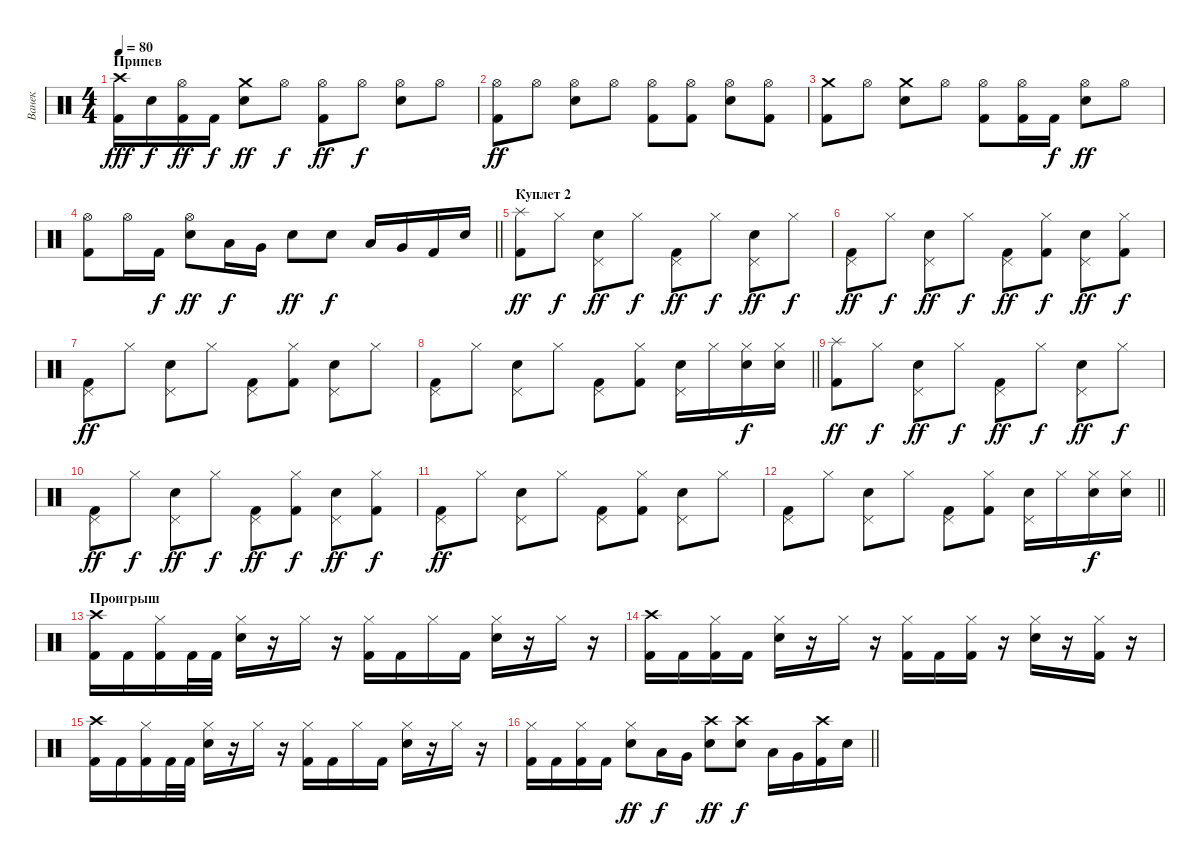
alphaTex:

\track ("Ванек" "Ванек") {instrument percussion}
\staff {score}
\articulation defaults
\ts (4 4)
\section ("" "Припев")
\tempo 80
\clef neutral
\ks c
("Crash high (hit)" "Kick (hit) 2").16{dy fff} "Electric Snare (hit)".16{dy f} ("Hi-Hat (open)" "Kick (hit) 2").16{dy ff} "Kick (hit) 2".16{dy f} ("Crash medium (hit)" "Electric Snare (hit)").8{dy ff} "Hi-Hat (open)".8{dy f} ("Hi-Hat (open)" "Kick (hit) 2").8{dy ff} "Hi-Hat (open)".8{dy f} ("Hi-Hat (open)" "Electric Snare (hit)").8 "Hi-Hat (open)".8 |
("Hi-Hat (open)" "Kick (hit) 2").8{dy ff} "Hi-Hat (open)".8 ("Hi-Hat (open)" "Electric Snare (hit)").8 "Hi-Hat (open)".8 ("Hi-Hat (open)" "Kick (hit) 2").8 ("Hi-Hat (open)" "Kick (hit) 2").8 ("Hi-Hat (open)" "Electric Snare (hit)").8 ("Hi-Hat (open)" "Kick (hit) 2").8 |
("Crash medium (hit)" "Kick (hit) 2").8 "Hi-Hat (open)".8 ("Crash medium (hit)" "Electric Snare (hit)").8 "Hi-Hat (open)".8 ("Hi-Hat (open)" "Kick (hit) 2").8 ("Hi-Hat (open)" "Kick (hit) 2").16 "Kick (hit) 2".16{dy f} ("Hi-Hat (open)" "Electric Snare (hit)").8{dy ff} "Hi-Hat (open)".8 |
\barLineRight lightlight
("Hi-Hat (open)" "Kick (hit) 2").8 "Hi-Hat (open)".16 "Kick (hit) 2".16{dy f} ("Hi-Hat (open)" "Electric Snare (hit)").8{dy ff} "Low Floor Tom (hit)".16{dy f} "Very Low Tom (hit)".16 "Electric Snare (hit)".8{dy ff} "Electric Snare (hit)".8{dy f} "Low Floor Tom (hit)".16 "Very Low Tom (hit)".16 "Kick (hit) 2".16 "Electric Snare (hit)".16 |
\section ("" "Куплет 2")
("Splash (hit)" "Kick (hit) 2").8{dy ff} "Hi-Hat (closed)".8{dy f} ("Pedal Hi-Hat (hit)" "Electric Snare (hit)").8{dy ff} "Hi-Hat (closed)".8{dy f} ("Pedal Hi-Hat (hit)" "Kick (hit) 2").8{dy ff} "Hi-Hat (closed)".8{dy f} ("Pedal Hi-Hat (hit)" "Electric Snare (hit)").8{dy ff} "Hi-Hat (closed)".8{dy f} |
("Pedal Hi-Hat (hit)" "Kick (hit) 2").8{dy ff} "Hi-Hat (closed)".8{dy f} ("Pedal Hi-Hat (hit)" "Electric Snare (hit)").8{dy ff} "Hi-Hat (closed)".8{dy f} ("Pedal Hi-Hat (hit)" "Kick (hit) 2").8{dy ff} ("Hi-Hat (closed)" "Kick (hit) 2").8{dy f} ("Pedal Hi-Hat (hit)" "Electric Snare (hit)").8{dy ff} ("Hi-Hat (closed)" "Kick (hit) 2").8{dy f} |
("Pedal Hi-Hat (hit)" "Kick (hit) 2").8{dy ff} "Hi-Hat (closed)".8 ("Pedal Hi-Hat (hit)" "Electric Snare (hit)").8 "Hi-Hat (closed)".8 ("Pedal Hi-Hat (hit)" "Kick (hit) 2").8 ("Hi-Hat (closed)" "Kick (hit) 2").8 ("Pedal Hi-Hat (hit)" "Electric Snare (hit)").8 "Hi-Hat (closed)".8 |
\barLineRight lightlight
("Pedal Hi-Hat (hit)" "Kick (hit) 2").8 "Hi-Hat (closed)".8 ("Pedal Hi-Hat (hit)" "Electric Snare (hit)").8 "Hi-Hat (closed)".8 ("Pedal Hi-Hat (hit)" "Kick (hit) 2").8 ("Hi-Hat (closed)" "Kick (hit) 2").8 ("Pedal Hi-Hat (hit)" "Electric Snare (hit)").16 "Hi-Hat (closed)".16 ("Hi-Hat (closed)" "Electric Snare (hit)").16{dy f} ("Hi-Hat (closed)" "Electric Snare (hit)").16 |
("Splash (hit)" "Kick (hit) 2").8{dy ff} "Hi-Hat (closed)".8{dy f} ("Pedal Hi-Hat (hit)" "Electric Snare (hit)").8{dy ff} "Hi-Hat (closed)".8{dy f} ("Pedal Hi-Hat (hit)" "Kick (hit) 2").8{dy ff} "Hi-Hat (closed)".8{dy f} ("Pedal Hi-Hat (hit)" "Electric Snare (hit)").8{dy ff} "Hi-Hat (closed)".8{dy f} |
("Pedal Hi-Hat (hit)" "Kick (hit) 2").8{dy ff} "Hi-Hat (closed)".8{dy f} ("Pedal Hi-Hat (hit)" "Electric Snare (hit)").8{dy ff} "Hi-Hat (closed)".8{dy f} ("Pedal Hi-Hat (hit)" "Kick (hit) 2").8{dy ff} ("Hi-Hat (closed)" "Kick (hit) 2").8{dy f} ("Pedal Hi-Hat (hit)" "Electric Snare (hit)").8{dy ff} ("Hi-Hat (closed)" "Kick (hit) 2").8{dy f} |
("Pedal Hi-Hat (hit)" "Kick (hit) 2").8{dy ff} "Hi-Hat (closed)".8 ("Pedal Hi-Hat (hit)" "Electric Snare (hit)").8 "Hi-Hat (closed)".8 ("Pedal Hi-Hat (hit)" "Kick (hit) 2").8 ("Hi-Hat (closed)" "Kick (hit) 2").8 ("Pedal Hi-Hat (hit)" "Electric Snare (hit)").8 "Hi-Hat (closed)".8 |
\barLineRight lightlight
("Pedal Hi-Hat (hit)" "Kick (hit) 2").8 "Hi-Hat (closed)".8 ("Pedal Hi-Hat (hit)" "Electric Snare (hit)").8 "Hi-Hat (closed)".8 ("Pedal Hi-Hat (hit)" "Kick (hit) 2").8 ("Hi-Hat (closed)" "Kick (hit) 2").8 ("Pedal Hi-Hat (hit)" "Electric Snare (hit)").16 "Hi-Hat (closed)".16 ("Hi-Hat (closed)" "Electric Snare (hit)").16{dy f} ("Hi-Hat (closed)" "Electric Snare (hit)").16 |
\section ("" "Проигрыш")
("Crash high (hit)" "Kick (hit) 2").16 "Kick (hit) 2".16 ("Hi-Hat (closed)" "Kick (hit) 2").16 "Kick (hit) 2".32 "Kick (hit) 2".32 ("Hi-Hat (closed)" "Electric Snare (hit)").16 r.16 "Hi-Hat (closed)".16 r.16 ("Hi-Hat (closed)" "Kick (hit) 2").16 "Kick (hit) 2".16 "Hi-Hat (closed)".16 "Kick (hit) 2".16 ("Hi-Hat (closed)" "Electric Snare (hit)").16 r.16 "Hi-Hat (closed)".16 r.16 |
("Crash high (hit)" "Kick (hit) 2").16 "Kick (hit) 2".16 ("Hi-Hat (closed)" "Kick (hit) 2").16 "Kick (hit) 2".16 ("Hi-Hat (closed)" "Electric Snare (hit)").16 r.16 "Hi-Hat (closed)".16 r.16 ("Hi-Hat (closed)" "Kick (hit) 2").16 "Kick (hit) 2".16 ("Hi-Hat (closed)" "Kick (hit) 2").16 r.16 ("Hi-Hat (closed)" "Electric Snare (hit)").16 r.16 ("Hi-Hat (closed)" "Kick (hit) 2").16 r.16 |
("Crash high (hit)" "Kick (hit) 2").16 "Kick (hit) 2".16 ("Hi-Hat (closed)" "Kick (hit) 2").16 "Kick (hit) 2".32 "Kick (hit) 2".32 ("Hi-Hat (closed)" "Electric Snare (hit)").16 r.16 "Hi-Hat (closed)".16 r.16 ("Hi-Hat (closed)" "Kick (hit) 2").16 "Kick (hit) 2".16 "Hi-Hat (closed)".16 "Kick (hit) 2".16 ("Hi-Hat (closed)" "Electric Snare (hit)").16 r.16 "Hi-Hat (closed)".16 r.16 |
\barLineRight lightlight
("Hi-Hat (closed)" "Kick (hit) 2").16 "Kick (hit) 2".16 ("Hi-Hat (closed)" "Kick (hit) 2").16 "Kick (hit) 2".16 ("Hi-Hat (closed)" "Electric Snare (hit)").8{dy ff} "Low Floor Tom (hit)".16{dy f} "Very Low Tom (hit)".16 ("Crash high (hit)" "Electric Snare (hit)").8{dy ff} ("Crash high (hit)" "Electric Snare (hit)").8{dy f} "Low Floor Tom (hit)".16 "Very Low Tom (hit)".16 ("Crash high (hit)" "Kick (hit) 2").16 "Electric Snare (hit)".16
